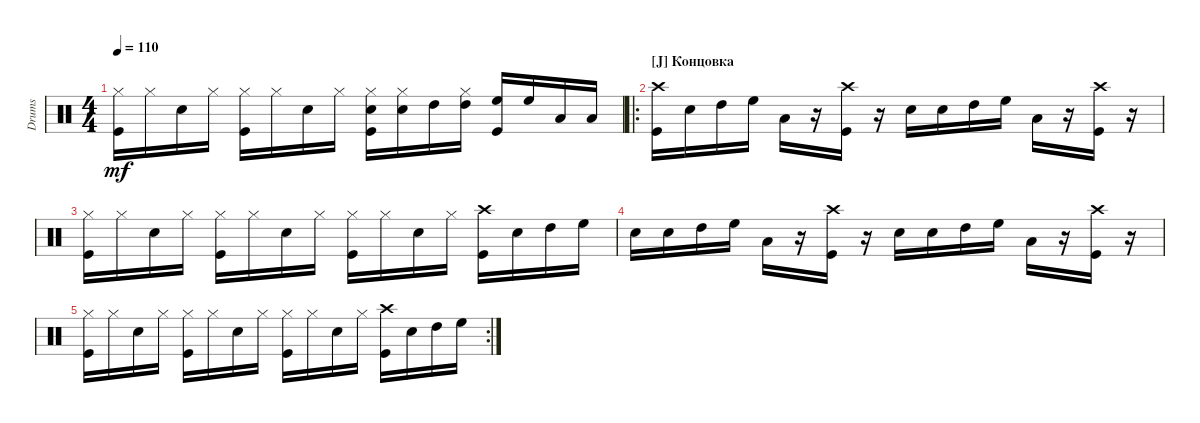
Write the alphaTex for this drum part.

\track ("Drumkit" "Drums") {instrument percussion}
\staff {score}
\articulation defaults
\ts (4 4)
\tempo 110
\clef neutral
\scale
0.311475
\ks c
("Kick (hit)" "Hi-Hat (closed)").16{dy mf} "Hi-Hat (closed)".16 "Snare (hit) 2".16 "Hi-Hat (closed)".16 ("Kick (hit)" "Hi-Hat (closed)").16 "Hi-Hat (closed)".16 "Snare (hit) 2".16 "Hi-Hat (closed)".16 ("Kick (hit)" "Hi-Hat (closed)" "Snare (hit) 2").16 ("Hi-Hat (closed)" "Snare (hit) 2").16 "High Tom (hit)".16 ("Hi-Hat (closed)" "High Tom (hit)").16 ("Kick (hit)" "High Floor Tom (hit)").16 "High Floor Tom (hit)".16 "Low Tom (hit)".16 "Low Tom (hit)".16 |
\ro
\section ("J" "Концовка")
\scale
0.377049 ("Crash high (hit)" "Kick (hit)").16 "Snare (hit) 2".16 "High Tom (hit)".16 "High Floor Tom (hit)".16 "Low Tom (hit)".16 r.16 ("Crash high (hit)" "Kick (hit)").16 r.16 "Snare (hit) 2".16 "Snare (hit) 2".16 "High Tom (hit)".16 "High Floor Tom (hit)".16 "Low Tom (hit)".16 r.16 ("Crash high (hit)" "Kick (hit)").16 r.16 |
\scale
0.311475 ("Kick (hit)" "Hi-Hat (closed)").16 "Hi-Hat (closed)".16 "Snare (hit) 2".16 "Hi-Hat (closed)".16 ("Kick (hit)" "Hi-Hat (closed)").16 "Hi-Hat (closed)".16 "Snare (hit) 2".16 "Hi-Hat (closed)".16 ("Kick (hit)" "Hi-Hat (closed)").16 "Hi-Hat (closed)".16 "Snare (hit) 2".16 "Hi-Hat (closed)".16 ("Kick (hit)" "Crash high (hit)").16 "Snare (hit) 2".16 "High Tom (hit)".16 "High Floor Tom (hit)".16 |
\scale
0.322034 "Snare (hit) 2".16 "Snare (hit) 2".16 "High Tom (hit)".16 "High Floor Tom (hit)".16 "Low Tom (hit)".16 r.16 ("Crash high (hit)" "Kick (hit)").16 r.16 "Snare (hit) 2".16 "Snare (hit) 2".16 "High Tom (hit)".16 "High Floor Tom (hit)".16 "Low Tom (hit)".16 r.16 ("Crash high (hit)" "Kick (hit)").16 r.16 |
\rc 2
\scale
0.355932 ("Kick (hit)" "Hi-Hat (closed)").16 "Hi-Hat (closed)".16 "Snare (hit) 2".16 "Hi-Hat (closed)".16 ("Kick (hit)" "Hi-Hat (closed)").16 "Hi-Hat (closed)".16 "Snare (hit) 2".16 "Hi-Hat (closed)".16 ("Kick (hit)" "Hi-Hat (closed)").16 "Hi-Hat (closed)".16 "Snare (hit) 2".16 "Hi-Hat (closed)".16 ("Kick (hit)" "Crash high (hit)").16 "Snare (hit) 2".16 "High Tom (hit)".16 "High Floor Tom (hit)".16 |
\scale
0.322034
